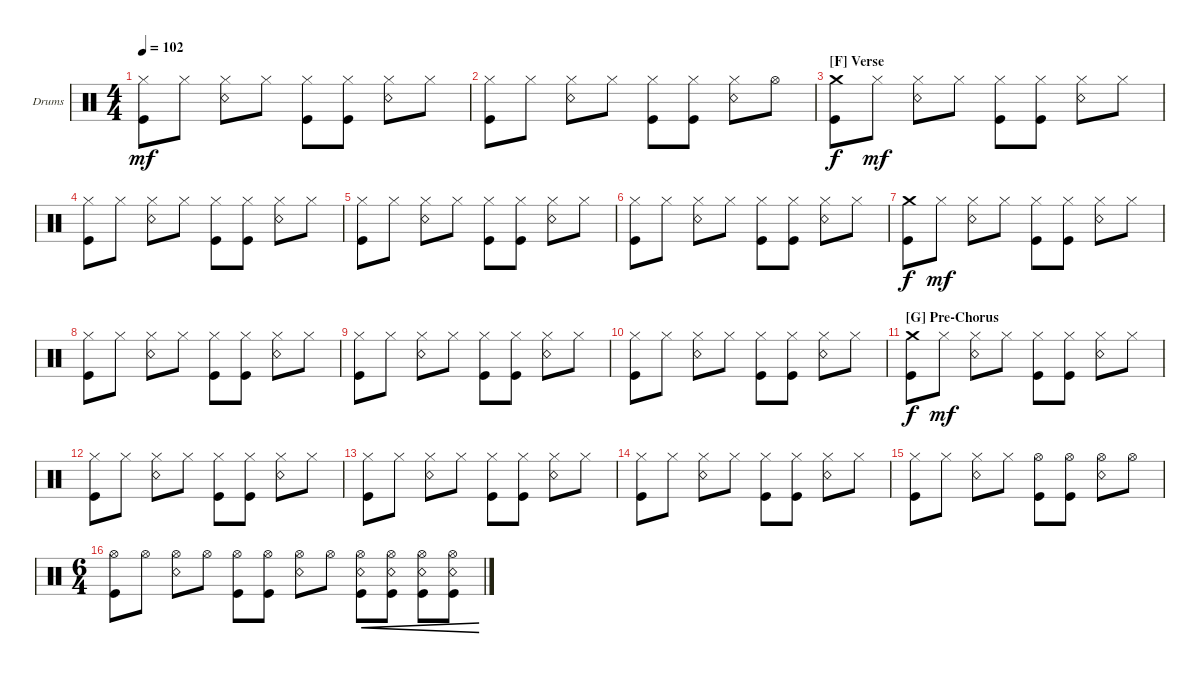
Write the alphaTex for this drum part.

\defaultSystemsLayout 4
\bracketExtendMode groupsimilarinstruments
\firstSystemTrackNameOrientation horizontal
\otherSystemsTrackNameOrientation horizontal
\track ("Drums" "Drums") {instrument percussion}
\staff {score}
\articulation defaults
\ts (4 4)
\tempo 102
\clef neutral
\ks c
("Kick (hit)" "Hi-Hat (closed)").8{dy mf} "Hi-Hat (closed)".8 ("Hi-Hat (closed)" "Snare (rim shot)").8 "Hi-Hat (closed)".8 ("Hi-Hat (closed)" "Kick (hit)").8 ("Hi-Hat (closed)" "Kick (hit)").8 ("Hi-Hat (closed)" "Snare (rim shot)").8 "Hi-Hat (closed)".8 |
("Kick (hit)" "Hi-Hat (closed)").8 "Hi-Hat (closed)".8 ("Hi-Hat (closed)" "Snare (rim shot)").8 "Hi-Hat (closed)".8 ("Hi-Hat (closed)" "Kick (hit)").8 ("Hi-Hat (closed)" "Kick (hit)").8 ("Hi-Hat (closed)" "Snare (rim shot)").8 "Hi-Hat (open)".8 |
\section ("F" "Verse")
("Kick (hit)" "Crash medium (hit)").8{dy f} "Hi-Hat (closed)".8{dy mf} ("Hi-Hat (closed)" "Snare (rim shot)").8 "Hi-Hat (closed)".8 ("Hi-Hat (closed)" "Kick (hit)").8 ("Hi-Hat (closed)" "Kick (hit)").8 ("Hi-Hat (closed)" "Snare (rim shot)").8 "Hi-Hat (closed)".8 |
("Kick (hit)" "Hi-Hat (closed)").8 "Hi-Hat (closed)".8 ("Hi-Hat (closed)" "Snare (rim shot)").8 "Hi-Hat (closed)".8 ("Hi-Hat (closed)" "Kick (hit)").8 ("Hi-Hat (closed)" "Kick (hit)").8 ("Hi-Hat (closed)" "Snare (rim shot)").8 "Hi-Hat (closed)".8 |
("Kick (hit)" "Hi-Hat (closed)").8 "Hi-Hat (closed)".8 ("Hi-Hat (closed)" "Snare (rim shot)").8 "Hi-Hat (closed)".8 ("Hi-Hat (closed)" "Kick (hit)").8 ("Hi-Hat (closed)" "Kick (hit)").8 ("Hi-Hat (closed)" "Snare (rim shot)").8 "Hi-Hat (closed)".8 |
("Kick (hit)" "Hi-Hat (closed)").8 "Hi-Hat (closed)".8 ("Hi-Hat (closed)" "Snare (rim shot)").8 "Hi-Hat (closed)".8 ("Hi-Hat (closed)" "Kick (hit)").8 ("Hi-Hat (closed)" "Kick (hit)").8 ("Hi-Hat (closed)" "Snare (rim shot)").8 "Hi-Hat (closed)".8 |
("Kick (hit)" "Crash medium (hit)").8{dy f} "Hi-Hat (closed)".8{dy mf} ("Hi-Hat (closed)" "Snare (rim shot)").8 "Hi-Hat (closed)".8 ("Hi-Hat (closed)" "Kick (hit)").8 ("Hi-Hat (closed)" "Kick (hit)").8 ("Hi-Hat (closed)" "Snare (rim shot)").8 "Hi-Hat (closed)".8 |
("Kick (hit)" "Hi-Hat (closed)").8 "Hi-Hat (closed)".8 ("Hi-Hat (closed)" "Snare (rim shot)").8 "Hi-Hat (closed)".8 ("Hi-Hat (closed)" "Kick (hit)").8 ("Hi-Hat (closed)" "Kick (hit)").8 ("Hi-Hat (closed)" "Snare (rim shot)").8 "Hi-Hat (closed)".8 |
("Kick (hit)" "Hi-Hat (closed)").8 "Hi-Hat (closed)".8 ("Hi-Hat (closed)" "Snare (rim shot)").8 "Hi-Hat (closed)".8 ("Hi-Hat (closed)" "Kick (hit)").8 ("Hi-Hat (closed)" "Kick (hit)").8 ("Hi-Hat (closed)" "Snare (rim shot)").8 "Hi-Hat (closed)".8 |
("Kick (hit)" "Hi-Hat (closed)").8 "Hi-Hat (closed)".8 ("Hi-Hat (closed)" "Snare (rim shot)").8 "Hi-Hat (closed)".8 ("Hi-Hat (closed)" "Kick (hit)").8 ("Kick (hit)" "Hi-Hat (closed)").8 ("Hi-Hat (closed)" "Snare (rim shot)").8 "Hi-Hat (closed)".8 |
\section ("G" "Pre-Chorus")
("Kick (hit)" "Crash medium (hit)").8{dy f} "Hi-Hat (closed)".8{dy mf} ("Hi-Hat (closed)" "Snare (rim shot)").8 "Hi-Hat (closed)".8 ("Hi-Hat (closed)" "Kick (hit)").8 ("Hi-Hat (closed)" "Kick (hit)").8 ("Hi-Hat (closed)" "Snare (rim shot)").8 "Hi-Hat (closed)".8 |
("Kick (hit)" "Hi-Hat (closed)").8 "Hi-Hat (closed)".8 ("Hi-Hat (closed)" "Snare (rim shot)").8 "Hi-Hat (closed)".8 ("Hi-Hat (closed)" "Kick (hit)").8 ("Hi-Hat (closed)" "Kick (hit)").8 ("Hi-Hat (closed)" "Snare (rim shot)").8 "Hi-Hat (closed)".8 |
("Kick (hit)" "Hi-Hat (closed)").8 "Hi-Hat (closed)".8 ("Hi-Hat (closed)" "Snare (rim shot)").8 "Hi-Hat (closed)".8 ("Hi-Hat (closed)" "Kick (hit)").8 ("Hi-Hat (closed)" "Kick (hit)").8 ("Hi-Hat (closed)" "Snare (rim shot)").8 "Hi-Hat (closed)".8 |
("Kick (hit)" "Hi-Hat (closed)").8 "Hi-Hat (closed)".8 ("Hi-Hat (closed)" "Snare (rim shot)").8 "Hi-Hat (closed)".8 ("Hi-Hat (closed)" "Kick (hit)").8 ("Hi-Hat (closed)" "Kick (hit)").8 ("Hi-Hat (closed)" "Snare (rim shot)").8 "Hi-Hat (closed)".8 |
("Kick (hit)" "Hi-Hat (closed)").8 "Hi-Hat (closed)".8 ("Hi-Hat (closed)" "Snare (rim shot)").8 "Hi-Hat (closed)".8 ("Hi-Hat (open)" "Kick (hit)").8 ("Hi-Hat (open)" "Kick (hit)").8 ("Hi-Hat (open)" "Snare (rim shot)").8 "Hi-Hat (open)".8 |
\ts (6 4)
("Kick (hit)" "Hi-Hat (open)").8 "Hi-Hat (open)".8 ("Hi-Hat (open)" "Snare (rim shot)").8 "Hi-Hat (open)".8 ("Hi-Hat (open)" "Kick (hit)").8 ("Hi-Hat (open)" "Kick (hit)").8 ("Hi-Hat (open)" "Snare (rim shot)").8 "Hi-Hat (open)".8 ("Hi-Hat (open)" "Snare (rim shot)" "Kick (hit)").8{cre} ("Hi-Hat (open)" "Snare (rim shot)" "Kick (hit)").8{cre} ("Hi-Hat (open)" "Snare (rim shot)" "Kick (hit)").8{cre} ("Hi-Hat (open)" "Snare (rim shot)" "Kick (hit)").8{cre}
